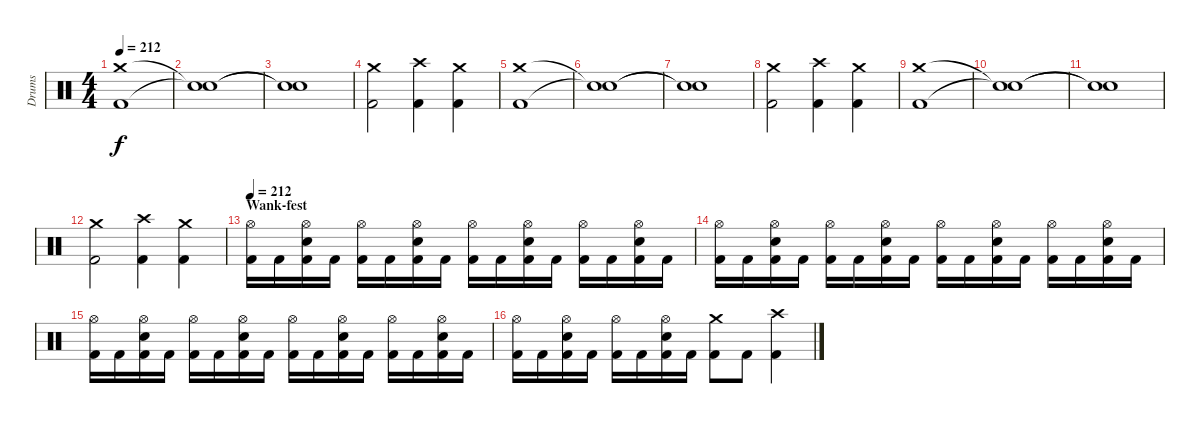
\track ("Drums" "Drums") {instrument percussion}
\staff {score}
\articulation defaults
\ts (4 4)
\tempo 212
\clef neutral
\ks c
("Crash medium (hit)" "Kick (hit) 2").1{dy f} |
("Snare (hit)"{t} "Snare (hit)"{t}).1 |
("Snare (hit)"{t} "Snare (hit)"{t}).1 |
("Crash medium (hit)" "Kick (hit) 2").2 ("Crash high (hit)" "Kick (hit) 2").4 ("Crash medium (hit)" "Kick (hit) 2").4 |
("Crash medium (hit)" "Kick (hit) 2").1 |
("Snare (hit)"{t} "Snare (hit)"{t}).1 |
("Snare (hit)"{t} "Snare (hit)"{t}).1 |
("Crash medium (hit)" "Kick (hit) 2").2 ("Crash high (hit)" "Kick (hit) 2").4 ("Crash medium (hit)" "Kick (hit) 2").4 |
("Crash medium (hit)" "Kick (hit) 2").1 |
("Snare (hit)"{t} "Snare (hit)"{t}).1 |
("Snare (hit)"{t} "Snare (hit)"{t}).1 |
("Crash medium (hit)" "Kick (hit) 2").2 ("Crash high (hit)" "Kick (hit) 2").4 ("Crash medium (hit)" "Kick (hit) 2").4 |
\section ("" "Wank-fest")
\tempo 212
("Hi-Hat (open)" "Kick (hit) 2").16 "Kick (hit) 2".16 ("Electric Snare (hit)" "Hi-Hat (open)" "Kick (hit) 2").16 "Kick (hit) 2".16 ("Hi-Hat (open)" "Kick (hit) 2").16 "Kick (hit) 2".16 ("Electric Snare (hit)" "Hi-Hat (open)" "Kick (hit) 2").16 "Kick (hit) 2".16 ("Hi-Hat (open)" "Kick (hit) 2").16 "Kick (hit) 2".16 ("Electric Snare (hit)" "Hi-Hat (open)" "Kick (hit) 2").16 "Kick (hit) 2".16 ("Hi-Hat (open)" "Kick (hit) 2").16 "Kick (hit) 2".16 ("Electric Snare (hit)" "Hi-Hat (open)" "Kick (hit) 2").16 "Kick (hit) 2".16 |
("Hi-Hat (open)" "Kick (hit) 2").16 "Kick (hit) 2".16 ("Electric Snare (hit)" "Hi-Hat (open)" "Kick (hit) 2").16 "Kick (hit) 2".16 ("Hi-Hat (open)" "Kick (hit) 2").16 "Kick (hit) 2".16 ("Electric Snare (hit)" "Hi-Hat (open)" "Kick (hit) 2").16 "Kick (hit) 2".16 ("Hi-Hat (open)" "Kick (hit) 2").16 "Kick (hit) 2".16 ("Electric Snare (hit)" "Hi-Hat (open)" "Kick (hit) 2").16 "Kick (hit) 2".16 ("Hi-Hat (open)" "Kick (hit) 2").16 "Kick (hit) 2".16 ("Electric Snare (hit)" "Hi-Hat (open)" "Kick (hit) 2").16 "Kick (hit) 2".16 |
("Hi-Hat (open)" "Kick (hit) 2").16 "Kick (hit) 2".16 ("Electric Snare (hit)" "Hi-Hat (open)" "Kick (hit) 2").16 "Kick (hit) 2".16 ("Hi-Hat (open)" "Kick (hit) 2").16 "Kick (hit) 2".16 ("Electric Snare (hit)" "Hi-Hat (open)" "Kick (hit) 2").16 "Kick (hit) 2".16 ("Hi-Hat (open)" "Kick (hit) 2").16 "Kick (hit) 2".16 ("Electric Snare (hit)" "Hi-Hat (open)" "Kick (hit) 2").16 "Kick (hit) 2".16 ("Hi-Hat (open)" "Kick (hit) 2").16 "Kick (hit) 2".16 ("Electric Snare (hit)" "Hi-Hat (open)" "Kick (hit) 2").16 "Kick (hit) 2".16 |
("Hi-Hat (open)" "Kick (hit) 2").16 "Kick (hit) 2".16 ("Electric Snare (hit)" "Hi-Hat (open)" "Kick (hit) 2").16 "Kick (hit) 2".16 ("Hi-Hat (open)" "Kick (hit) 2").16 "Kick (hit) 2".16 ("Electric Snare (hit)" "Hi-Hat (open)" "Kick (hit) 2").16 "Kick (hit) 2".16 ("Crash medium (hit)" "Kick (hit) 2").8 "Kick (hit) 2".8 ("Crash high (hit)" "Kick (hit) 2").4
